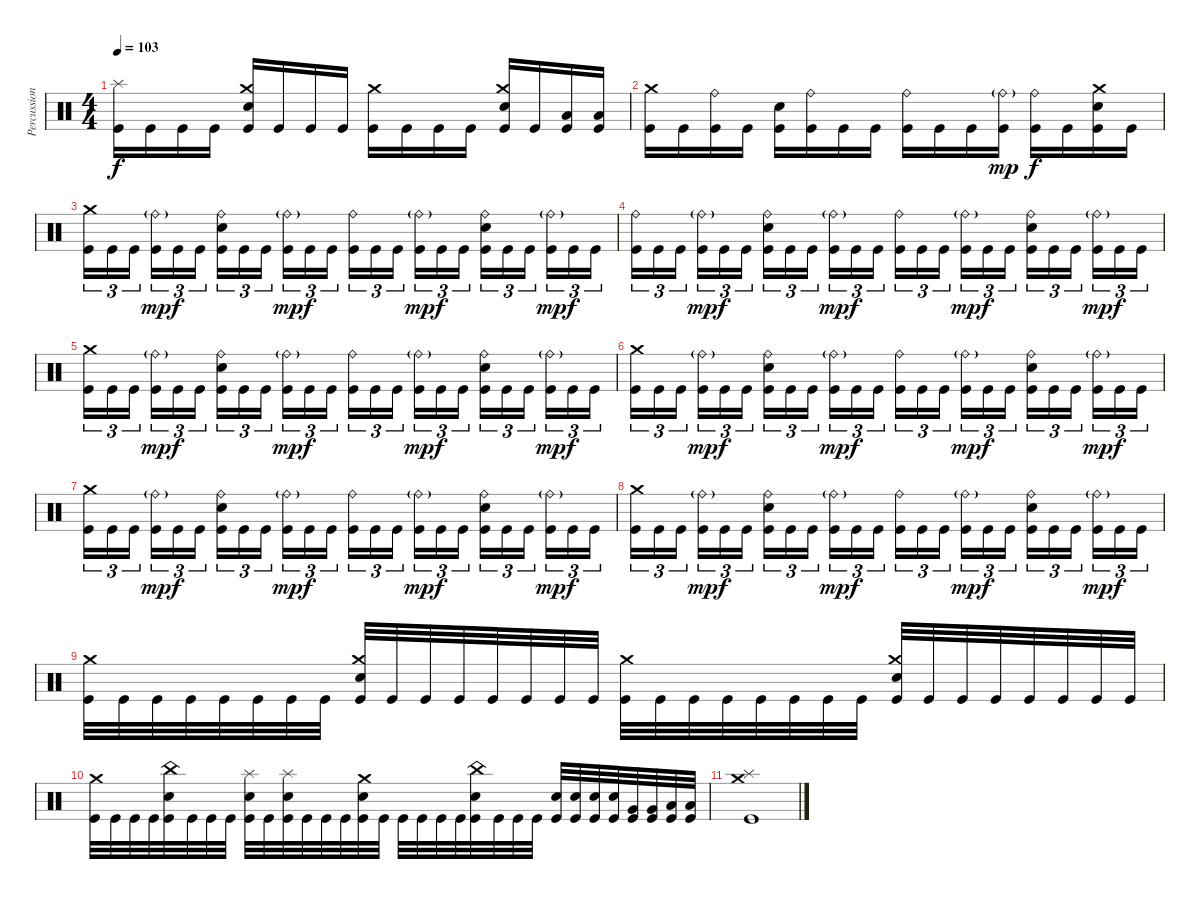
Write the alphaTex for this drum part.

\track ("Percussion" "Percussion") {instrument percussion}
\staff {score}
\articulation defaults
\ts (4 4)
\tempo 103
\clef neutral
\ks c
("Splash (hit)" "Kick (hit)").16{dy f} "Kick (hit)".16 "Kick (hit)".16 "Kick (hit)".16 ("Crash medium (hit)" "Electric Snare (hit)" "Kick (hit)").16 "Kick (hit)".16 "Kick (hit)".16 "Kick (hit)".16 ("Crash medium (hit)" "Kick (hit)").16 "Kick (hit)".16 "Kick (hit)".16 "Kick (hit)".16 ("Crash medium (hit)" "Electric Snare (hit)" "Kick (hit)").16 "Kick (hit)".16 ("Low Floor Tom (hit)" "Kick (hit)").16 ("Low Floor Tom (hit)" "Kick (hit)").16 |
("Crash medium (hit)" "Kick (hit)").16 "Kick (hit)".16 ("Ride (bell)" "Kick (hit)").16 "Kick (hit)".16 ("Electric Snare (hit)" "Kick (hit)").16 ("Ride (bell)" "Kick (hit)").16 "Kick (hit)".16 "Kick (hit)".16 ("Ride (bell)" "Kick (hit)").16 "Kick (hit)".16 "Kick (hit)".16 ("Ride (bell)"{g} "Kick (hit)").16{dy mp} ("Ride (bell)" "Kick (hit)").16{dy f} "Kick (hit)".16 ("Crash medium (hit)" "Electric Snare (hit)" "Kick (hit)").16 "Kick (hit)".16 |
("Crash medium (hit)" "Kick (hit)").16{tu (3 2)} "Kick (hit)".16{tu (3 2)} "Kick (hit)".16{tu (3 2) beam splitsecondary} ("Ride (bell)"{g} "Kick (hit)").16{tu (3 2) dy mp} "Kick (hit)".16{tu (3 2) dy f} "Kick (hit)".16{tu (3 2)} ("Ride (bell)" "Electric Snare (hit)" "Kick (hit)").16{tu (3 2)} "Kick (hit)".16{tu (3 2)} "Kick (hit)".16{tu (3 2) beam splitsecondary} ("Ride (bell)"{g} "Kick (hit)").16{tu (3 2) dy mp} "Kick (hit)".16{tu (3 2) dy f} "Kick (hit)".16{tu (3 2)} ("Ride (bell)" "Kick (hit)").16{tu (3 2)} "Kick (hit)".16{tu (3 2)} "Kick (hit)".16{tu (3 2) beam splitsecondary} ("Ride (bell)"{g} "Kick (hit)").16{tu (3 2) dy mp} "Kick (hit)".16{tu (3 2) dy f} "Kick (hit)".16{tu (3 2)} ("Ride (bell)" "Electric Snare (hit)" "Kick (hit)").16{tu (3 2)} "Kick (hit)".16{tu (3 2)} "Kick (hit)".16{tu (3 2) beam splitsecondary} ("Ride (bell)"{g} "Kick (hit)").16{tu (3 2) dy mp} "Kick (hit)".16{tu (3 2) dy f} "Kick (hit)".16{tu (3 2)} |
("Ride (bell)" "Kick (hit)").16{tu (3 2)} "Kick (hit)".16{tu (3 2)} "Kick (hit)".16{tu (3 2) beam splitsecondary} ("Ride (bell)"{g} "Kick (hit)").16{tu (3 2) dy mp} "Kick (hit)".16{tu (3 2) dy f} "Kick (hit)".16{tu (3 2)} ("Ride (bell)" "Electric Snare (hit)" "Kick (hit)").16{tu (3 2)} "Kick (hit)".16{tu (3 2)} "Kick (hit)".16{tu (3 2) beam splitsecondary} ("Ride (bell)"{g} "Kick (hit)").16{tu (3 2) dy mp} "Kick (hit)".16{tu (3 2) dy f} "Kick (hit)".16{tu (3 2)} ("Ride (bell)" "Kick (hit)").16{tu (3 2)} "Kick (hit)".16{tu (3 2)} "Kick (hit)".16{tu (3 2) beam splitsecondary} ("Ride (bell)"{g} "Kick (hit)").16{tu (3 2) dy mp} "Kick (hit)".16{tu (3 2) dy f} "Kick (hit)".16{tu (3 2)} ("Ride (bell)" "Electric Snare (hit)" "Kick (hit)").16{tu (3 2)} "Kick (hit)".16{tu (3 2)} "Kick (hit)".16{tu (3 2) beam splitsecondary} ("Ride (bell)"{g} "Kick (hit)").16{tu (3 2) dy mp} "Kick (hit)".16{tu (3 2) dy f} "Kick (hit)".16{tu (3 2)} |
("Crash medium (hit)" "Kick (hit)").16{tu (3 2)} "Kick (hit)".16{tu (3 2)} "Kick (hit)".16{tu (3 2) beam splitsecondary} ("Ride (bell)"{g} "Kick (hit)").16{tu (3 2) dy mp} "Kick (hit)".16{tu (3 2) dy f} "Kick (hit)".16{tu (3 2)} ("Ride (bell)" "Electric Snare (hit)" "Kick (hit)").16{tu (3 2)} "Kick (hit)".16{tu (3 2)} "Kick (hit)".16{tu (3 2) beam splitsecondary} ("Ride (bell)"{g} "Kick (hit)").16{tu (3 2) dy mp} "Kick (hit)".16{tu (3 2) dy f} "Kick (hit)".16{tu (3 2)} ("Ride (bell)" "Kick (hit)").16{tu (3 2)} "Kick (hit)".16{tu (3 2)} "Kick (hit)".16{tu (3 2) beam splitsecondary} ("Ride (bell)"{g} "Kick (hit)").16{tu (3 2) dy mp} "Kick (hit)".16{tu (3 2) dy f} "Kick (hit)".16{tu (3 2)} ("Ride (bell)" "Electric Snare (hit)" "Kick (hit)").16{tu (3 2)} "Kick (hit)".16{tu (3 2)} "Kick (hit)".16{tu (3 2) beam splitsecondary} ("Ride (bell)"{g} "Kick (hit)").16{tu (3 2) dy mp} "Kick (hit)".16{tu (3 2) dy f} "Kick (hit)".16{tu (3 2)} |
("Crash medium (hit)" "Kick (hit)").16{tu (3 2)} "Kick (hit)".16{tu (3 2)} "Kick (hit)".16{tu (3 2) beam splitsecondary} ("Ride (bell)"{g} "Kick (hit)").16{tu (3 2) dy mp} "Kick (hit)".16{tu (3 2) dy f} "Kick (hit)".16{tu (3 2)} ("Ride (bell)" "Electric Snare (hit)" "Kick (hit)").16{tu (3 2)} "Kick (hit)".16{tu (3 2)} "Kick (hit)".16{tu (3 2) beam splitsecondary} ("Ride (bell)"{g} "Kick (hit)").16{tu (3 2) dy mp} "Kick (hit)".16{tu (3 2) dy f} "Kick (hit)".16{tu (3 2)} ("Ride (bell)" "Kick (hit)").16{tu (3 2)} "Kick (hit)".16{tu (3 2)} "Kick (hit)".16{tu (3 2) beam splitsecondary} ("Ride (bell)"{g} "Kick (hit)").16{tu (3 2) dy mp} "Kick (hit)".16{tu (3 2) dy f} "Kick (hit)".16{tu (3 2)} ("Ride (bell)" "Electric Snare (hit)" "Kick (hit)").16{tu (3 2)} "Kick (hit)".16{tu (3 2)} "Kick (hit)".16{tu (3 2) beam splitsecondary} ("Ride (bell)"{g} "Kick (hit)").16{tu (3 2) dy mp} "Kick (hit)".16{tu (3 2) dy f} "Kick (hit)".16{tu (3 2)} |
("Crash medium (hit)" "Kick (hit)").16{tu (3 2)} "Kick (hit)".16{tu (3 2)} "Kick (hit)".16{tu (3 2) beam splitsecondary} ("Ride (bell)"{g} "Kick (hit)").16{tu (3 2) dy mp} "Kick (hit)".16{tu (3 2) dy f} "Kick (hit)".16{tu (3 2)} ("Ride (bell)" "Electric Snare (hit)" "Kick (hit)").16{tu (3 2)} "Kick (hit)".16{tu (3 2)} "Kick (hit)".16{tu (3 2) beam splitsecondary} ("Ride (bell)"{g} "Kick (hit)").16{tu (3 2) dy mp} "Kick (hit)".16{tu (3 2) dy f} "Kick (hit)".16{tu (3 2)} ("Ride (bell)" "Kick (hit)").16{tu (3 2)} "Kick (hit)".16{tu (3 2)} "Kick (hit)".16{tu (3 2) beam splitsecondary} ("Ride (bell)"{g} "Kick (hit)").16{tu (3 2) dy mp} "Kick (hit)".16{tu (3 2) dy f} "Kick (hit)".16{tu (3 2)} ("Ride (bell)" "Electric Snare (hit)" "Kick (hit)").16{tu (3 2)} "Kick (hit)".16{tu (3 2)} "Kick (hit)".16{tu (3 2) beam splitsecondary} ("Ride (bell)"{g} "Kick (hit)").16{tu (3 2) dy mp} "Kick (hit)".16{tu (3 2) dy f} "Kick (hit)".16{tu (3 2)} |
("Crash medium (hit)" "Kick (hit)").16{tu (3 2)} "Kick (hit)".16{tu (3 2)} "Kick (hit)".16{tu (3 2) beam splitsecondary} ("Ride (bell)"{g} "Kick (hit)").16{tu (3 2) dy mp} "Kick (hit)".16{tu (3 2) dy f} "Kick (hit)".16{tu (3 2)} ("Ride (bell)" "Electric Snare (hit)" "Kick (hit)").16{tu (3 2)} "Kick (hit)".16{tu (3 2)} "Kick (hit)".16{tu (3 2) beam splitsecondary} ("Ride (bell)"{g} "Kick (hit)").16{tu (3 2) dy mp} "Kick (hit)".16{tu (3 2) dy f} "Kick (hit)".16{tu (3 2)} ("Ride (bell)" "Kick (hit)").16{tu (3 2)} "Kick (hit)".16{tu (3 2)} "Kick (hit)".16{tu (3 2) beam splitsecondary} ("Ride (bell)"{g} "Kick (hit)").16{tu (3 2) dy mp} "Kick (hit)".16{tu (3 2) dy f} "Kick (hit)".16{tu (3 2)} ("Ride (bell)" "Electric Snare (hit)" "Kick (hit)").16{tu (3 2)} "Kick (hit)".16{tu (3 2)} "Kick (hit)".16{tu (3 2) beam splitsecondary} ("Ride (bell)"{g} "Kick (hit)").16{tu (3 2) dy mp} "Kick (hit)".16{tu (3 2) dy f} "Kick (hit)".16{tu (3 2)} |
("Crash medium (hit)" "Kick (hit)").32 "Kick (hit)".32 "Kick (hit)".32 "Kick (hit)".32 "Kick (hit)".32 "Kick (hit)".32 "Kick (hit)".32 "Kick (hit)".32 ("Crash medium (hit)" "Electric Snare (hit)" "Kick (hit)").32 "Kick (hit)".32 "Kick (hit)".32 "Kick (hit)".32 "Kick (hit)".32 "Kick (hit)".32 "Kick (hit)".32 "Kick (hit)".32 ("Crash medium (hit)" "Kick (hit)").32 "Kick (hit)".32 "Kick (hit)".32 "Kick (hit)".32 "Kick (hit)".32 "Kick (hit)".32 "Kick (hit)".32 "Kick (hit)".32 ("Crash medium (hit)" "Electric Snare (hit)" "Kick (hit)").32 "Kick (hit)".32 "Kick (hit)".32 "Kick (hit)".32 "Kick (hit)".32 "Kick (hit)".32 "Kick (hit)".32 "Kick (hit)".32 |
("Crash medium (hit)" "Kick (hit)").32 "Kick (hit)".32 "Kick (hit)".32 "Kick (hit)".32 ("Electric Snare (hit)" "China (hit)" "Kick (hit)").32 "Kick (hit)".32 "Kick (hit)".32 "Kick (hit)".32 ("Splash (hit)" "Electric Snare (hit)" "Kick (hit)").32 "Kick (hit)".32 ("Splash (hit)" "Electric Snare (hit)" "Kick (hit)").32 "Kick (hit)".32 "Kick (hit)".32 "Kick (hit)".32 ("Crash medium (hit)" "Electric Snare (hit)" "Kick (hit)").32 "Kick (hit)".32 "Kick (hit)".32 "Kick (hit)".32 "Kick (hit)".32 "Kick (hit)".32 ("China (hit)" "Electric Snare (hit)" "Kick (hit)").32 "Kick (hit)".32 "Kick (hit)".32 "Kick (hit)".32 ("Electric Snare (hit)" "Kick (hit)").32 ("Electric Snare (hit)" "Kick (hit)").32 ("Electric Snare (hit)" "Kick (hit)").32 ("Electric Snare (hit)" "Kick (hit)").32 ("Very Low Tom (hit)" "Kick (hit)").32 ("Very Low Tom (hit)" "Kick (hit)").32 ("Low Floor Tom (hit)" "Kick (hit)").32 ("Low Floor Tom (hit)" "Kick (hit)").32 |
("Splash (hit)" "Kick (hit)" "Crash medium (hit)").1
